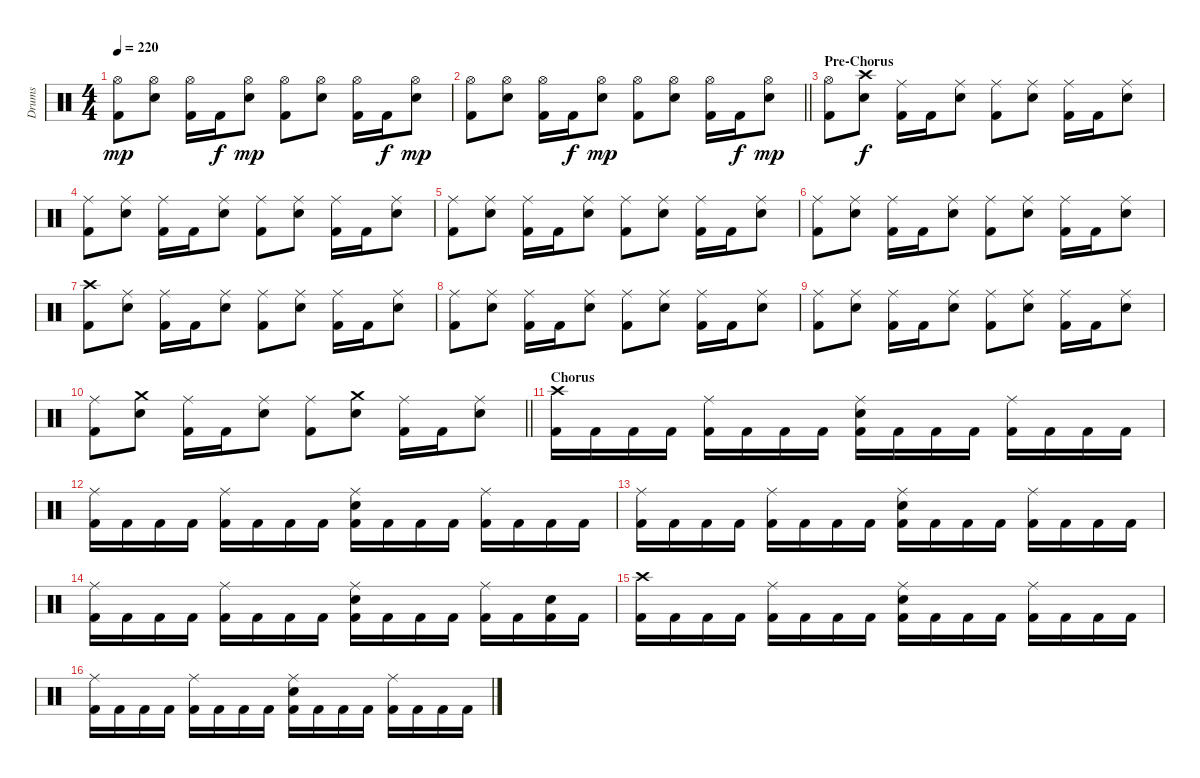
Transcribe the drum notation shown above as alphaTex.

\track ("Drums" "Drums") {instrument percussion}
\staff {score}
\articulation defaults
\ts (4 4)
\tempo 220
\clef neutral
\ks c
("Hi-Hat (open)" "Kick (hit) 2").8{dy mp} ("Hi-Hat (open)" "Snare (hit) 2").8 ("Hi-Hat (open)" "Kick (hit) 2").16 "Kick (hit) 2".16{dy f} ("Hi-Hat (open)" "Snare (hit) 2").8{dy mp} ("Hi-Hat (open)" "Kick (hit) 2").8 ("Hi-Hat (open)" "Snare (hit) 2").8 ("Hi-Hat (open)" "Kick (hit) 2").16 "Kick (hit) 2".16{dy f} ("Hi-Hat (open)" "Snare (hit) 2").8{dy mp} |
\barLineRight lightlight
("Hi-Hat (open)" "Kick (hit) 2").8 ("Hi-Hat (open)" "Snare (hit) 2").8 ("Hi-Hat (open)" "Kick (hit) 2").16 "Kick (hit) 2".16{dy f} ("Hi-Hat (open)" "Snare (hit) 2").8{dy mp} ("Hi-Hat (open)" "Kick (hit) 2").8 ("Hi-Hat (open)" "Snare (hit) 2").8 ("Hi-Hat (open)" "Kick (hit) 2").16 "Kick (hit) 2".16{dy f} ("Hi-Hat (open)" "Snare (hit) 2").8{dy mp} |
\section ("" "Pre-Chorus")
("Hi-Hat (open)" "Kick (hit) 2").8 ("Crash high (hit)" "Snare (hit) 2").8{dy f} ("Ride (middle)" "Kick (hit) 2").16 "Kick (hit) 2".16 ("Ride (middle)" "Snare (hit) 2").8 ("Ride (middle)" "Kick (hit) 2").8 ("Ride (middle)" "Snare (hit) 2").8 ("Ride (middle)" "Kick (hit) 2").16 "Kick (hit) 2".16 ("Ride (middle)" "Snare (hit) 2").8 |
("Ride (middle)" "Kick (hit) 2").8 ("Ride (middle)" "Snare (hit) 2").8 ("Ride (middle)" "Kick (hit) 2").16 "Kick (hit) 2".16 ("Ride (middle)" "Snare (hit) 2").8 ("Ride (middle)" "Kick (hit) 2").8 ("Ride (middle)" "Snare (hit) 2").8 ("Ride (middle)" "Kick (hit) 2").16 "Kick (hit) 2".16 ("Ride (middle)" "Snare (hit) 2").8 |
("Ride (middle)" "Kick (hit) 2").8 ("Ride (middle)" "Snare (hit) 2").8 ("Ride (middle)" "Kick (hit) 2").16 "Kick (hit) 2".16 ("Ride (middle)" "Snare (hit) 2").8 ("Ride (middle)" "Kick (hit) 2").8 ("Ride (middle)" "Snare (hit) 2").8 ("Ride (middle)" "Kick (hit) 2").16 "Kick (hit) 2".16 ("Ride (middle)" "Snare (hit) 2").8 |
("Ride (middle)" "Kick (hit) 2").8 ("Ride (middle)" "Snare (hit) 2").8 ("Ride (middle)" "Kick (hit) 2").16 "Kick (hit) 2".16 ("Ride (middle)" "Snare (hit) 2").8 ("Ride (middle)" "Kick (hit) 2").8 ("Ride (middle)" "Snare (hit) 2").8 ("Ride (middle)" "Kick (hit) 2").16 "Kick (hit) 2".16 ("Ride (middle)" "Snare (hit) 2").8 |
("Crash high (hit)" "Kick (hit) 2").8 ("Ride (middle)" "Snare (hit) 2").8 ("Ride (middle)" "Kick (hit) 2").16 "Kick (hit) 2".16 ("Ride (middle)" "Snare (hit) 2").8 ("Ride (middle)" "Kick (hit) 2").8 ("Ride (middle)" "Snare (hit) 2").8 ("Ride (middle)" "Kick (hit) 2").16 "Kick (hit) 2".16 ("Ride (middle)" "Snare (hit) 2").8 |
("Ride (middle)" "Kick (hit) 2").8 ("Ride (middle)" "Snare (hit) 2").8 ("Ride (middle)" "Kick (hit) 2").16 "Kick (hit) 2".16 ("Ride (middle)" "Snare (hit) 2").8 ("Ride (middle)" "Kick (hit) 2").8 ("Ride (middle)" "Snare (hit) 2").8 ("Ride (middle)" "Kick (hit) 2").16 "Kick (hit) 2".16 ("Ride (middle)" "Snare (hit) 2").8 |
("Ride (middle)" "Kick (hit) 2").8 ("Ride (middle)" "Snare (hit) 2").8 ("Ride (middle)" "Kick (hit) 2").16 "Kick (hit) 2".16 ("Ride (middle)" "Snare (hit) 2").8 ("Ride (middle)" "Kick (hit) 2").8 ("Ride (middle)" "Snare (hit) 2").8 ("Ride (middle)" "Kick (hit) 2").16 "Kick (hit) 2".16 ("Ride (middle)" "Snare (hit) 2").8 |
\barLineRight lightlight
("Ride (middle)" "Kick (hit) 2").8 ("Crash medium (hit)" "Snare (hit) 2").8 ("Ride (middle)" "Kick (hit) 2").16 "Kick (hit) 2".16 ("Ride (middle)" "Snare (hit) 2").8 ("Ride (middle)" "Kick (hit) 2").8 ("Crash medium (hit)" "Snare (hit) 2").8 ("Ride (middle)" "Kick (hit) 2").16 "Kick (hit) 2".16 ("Ride (middle)" "Snare (hit) 2").8 |
\section ("" "Chorus")
("Crash high (hit)" "Kick (hit) 2").16 "Kick (hit) 2".16 "Kick (hit) 2".16 "Kick (hit) 2".16 ("Ride (middle)" "Kick (hit) 2").16 "Kick (hit) 2".16 "Kick (hit) 2".16 "Kick (hit) 2".16 ("Ride (middle)" "Snare (hit) 2" "Kick (hit) 2").16 "Kick (hit) 2".16 "Kick (hit) 2".16 "Kick (hit) 2".16 ("Ride (middle)" "Kick (hit) 2").16 "Kick (hit) 2".16 "Kick (hit) 2".16 "Kick (hit) 2".16 |
("Ride (middle)" "Kick (hit) 2").16 "Kick (hit) 2".16 "Kick (hit) 2".16 "Kick (hit) 2".16 ("Ride (middle)" "Kick (hit) 2").16 "Kick (hit) 2".16 "Kick (hit) 2".16 "Kick (hit) 2".16 ("Ride (middle)" "Snare (hit) 2" "Kick (hit) 2").16 "Kick (hit) 2".16 "Kick (hit) 2".16 "Kick (hit) 2".16 ("Ride (middle)" "Kick (hit) 2").16 "Kick (hit) 2".16 "Kick (hit) 2".16 "Kick (hit) 2".16 |
("Ride (middle)" "Kick (hit) 2").16 "Kick (hit) 2".16 "Kick (hit) 2".16 "Kick (hit) 2".16 ("Ride (middle)" "Kick (hit) 2").16 "Kick (hit) 2".16 "Kick (hit) 2".16 "Kick (hit) 2".16 ("Ride (middle)" "Snare (hit) 2" "Kick (hit) 2").16 "Kick (hit) 2".16 "Kick (hit) 2".16 "Kick (hit) 2".16 ("Ride (middle)" "Kick (hit) 2").16 "Kick (hit) 2".16 "Kick (hit) 2".16 "Kick (hit) 2".16 |
("Ride (middle)" "Kick (hit) 2").16 "Kick (hit) 2".16 "Kick (hit) 2".16 "Kick (hit) 2".16 ("Ride (middle)" "Kick (hit) 2").16 "Kick (hit) 2".16 "Kick (hit) 2".16 "Kick (hit) 2".16 ("Ride (middle)" "Snare (hit) 2" "Kick (hit) 2").16 "Kick (hit) 2".16 "Kick (hit) 2".16 "Kick (hit) 2".16 ("Ride (middle)" "Kick (hit) 2").16 "Kick (hit) 2".16 ("Snare (hit) 2" "Kick (hit) 2").16 "Kick (hit) 2".16 |
("Crash high (hit)" "Kick (hit) 2").16 "Kick (hit) 2".16 "Kick (hit) 2".16 "Kick (hit) 2".16 ("Ride (middle)" "Kick (hit) 2").16 "Kick (hit) 2".16 "Kick (hit) 2".16 "Kick (hit) 2".16 ("Ride (middle)" "Snare (hit) 2" "Kick (hit) 2").16 "Kick (hit) 2".16 "Kick (hit) 2".16 "Kick (hit) 2".16 ("Ride (middle)" "Kick (hit) 2").16 "Kick (hit) 2".16 "Kick (hit) 2".16 "Kick (hit) 2".16 |
("Ride (middle)" "Kick (hit) 2").16 "Kick (hit) 2".16 "Kick (hit) 2".16 "Kick (hit) 2".16 ("Ride (middle)" "Kick (hit) 2").16 "Kick (hit) 2".16 "Kick (hit) 2".16 "Kick (hit) 2".16 ("Ride (middle)" "Snare (hit) 2" "Kick (hit) 2").16 "Kick (hit) 2".16 "Kick (hit) 2".16 "Kick (hit) 2".16 ("Ride (middle)" "Kick (hit) 2").16 "Kick (hit) 2".16 "Kick (hit) 2".16 "Kick (hit) 2".16
